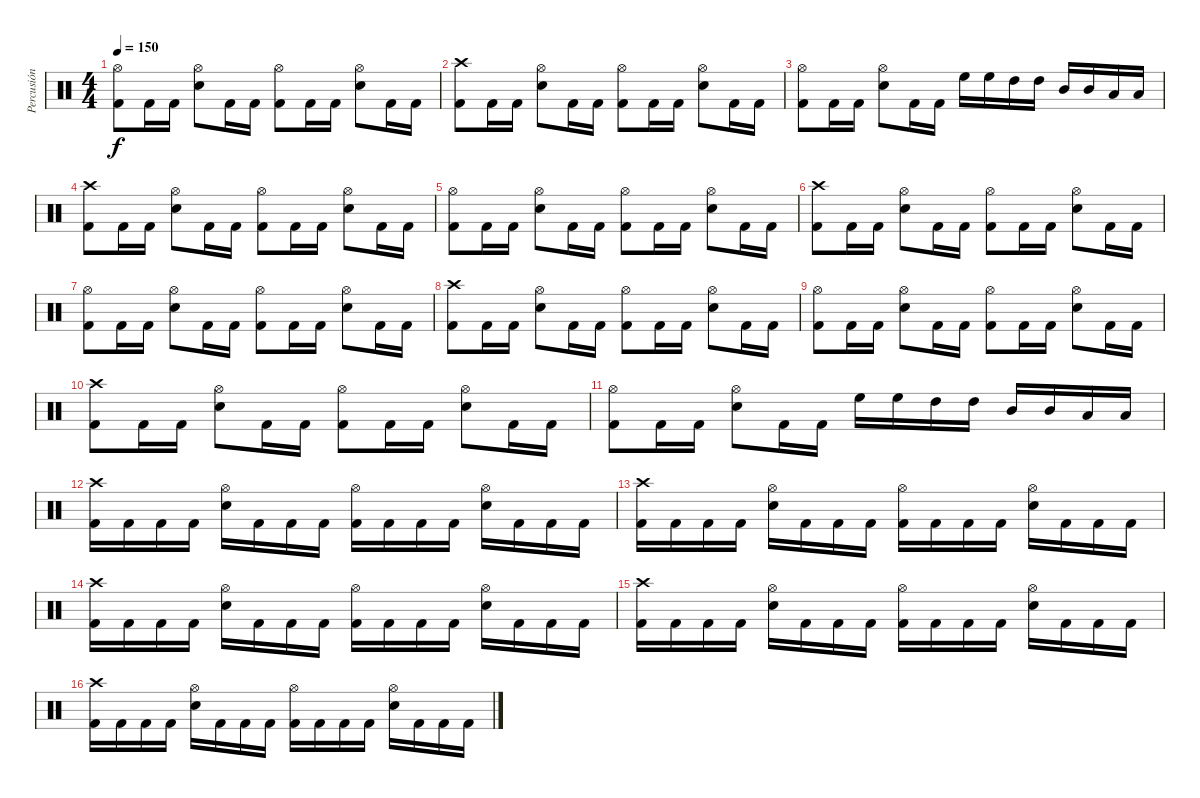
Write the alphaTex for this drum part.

\track ("Percusión" "Percusión") {instrument percussion}
\staff {score}
\articulation defaults
\ts (4 4)
\tempo 150
\clef neutral
\ks c
("Hi-Hat (open)" "Kick (hit) 2").8{dy f} "Kick (hit) 2".16 "Kick (hit) 2".16 ("Hi-Hat (open)" "Electric Snare (hit)").8 "Kick (hit) 2".16 "Kick (hit) 2".16 ("Hi-Hat (open)" "Kick (hit) 2").8 "Kick (hit) 2".16 "Kick (hit) 2".16 ("Hi-Hat (open)" "Electric Snare (hit)").8 "Kick (hit) 2".16 "Kick (hit) 2".16 |
("Crash high (hit)" "Kick (hit) 2").8 "Kick (hit) 2".16 "Kick (hit) 2".16 ("Hi-Hat (open)" "Electric Snare (hit)").8 "Kick (hit) 2".16 "Kick (hit) 2".16 ("Hi-Hat (open)" "Kick (hit) 2").8 "Kick (hit) 2".16 "Kick (hit) 2".16 ("Hi-Hat (open)" "Electric Snare (hit)").8 "Kick (hit) 2".16 "Kick (hit) 2".16 |
("Hi-Hat (open)" "Kick (hit) 2").8 "Kick (hit) 2".16 "Kick (hit) 2".16 ("Hi-Hat (open)" "Electric Snare (hit)").8 "Kick (hit) 2".16 "Kick (hit) 2".16 "High Floor Tom (hit)".16 "High Floor Tom (hit)".16 "High Tom (hit)".16 "High Tom (hit)".16 "Mid Tom (hit)".16 "Mid Tom (hit)".16 "Low Tom (hit)".16 "Low Tom (hit)".16 |
("Crash high (hit)" "Kick (hit) 2").8 "Kick (hit) 2".16 "Kick (hit) 2".16 ("Hi-Hat (open)" "Electric Snare (hit)").8 "Kick (hit) 2".16 "Kick (hit) 2".16 ("Hi-Hat (open)" "Kick (hit) 2").8 "Kick (hit) 2".16 "Kick (hit) 2".16 ("Hi-Hat (open)" "Electric Snare (hit)").8 "Kick (hit) 2".16 "Kick (hit) 2".16 |
("Hi-Hat (open)" "Kick (hit) 2").8 "Kick (hit) 2".16 "Kick (hit) 2".16 ("Hi-Hat (open)" "Electric Snare (hit)").8 "Kick (hit) 2".16 "Kick (hit) 2".16 ("Hi-Hat (open)" "Kick (hit) 2").8 "Kick (hit) 2".16 "Kick (hit) 2".16 ("Hi-Hat (open)" "Electric Snare (hit)").8 "Kick (hit) 2".16 "Kick (hit) 2".16 |
("Crash high (hit)" "Kick (hit) 2").8 "Kick (hit) 2".16 "Kick (hit) 2".16 ("Hi-Hat (open)" "Electric Snare (hit)").8 "Kick (hit) 2".16 "Kick (hit) 2".16 ("Hi-Hat (open)" "Kick (hit) 2").8 "Kick (hit) 2".16 "Kick (hit) 2".16 ("Hi-Hat (open)" "Electric Snare (hit)").8 "Kick (hit) 2".16 "Kick (hit) 2".16 |
("Hi-Hat (open)" "Kick (hit) 2").8 "Kick (hit) 2".16 "Kick (hit) 2".16 ("Hi-Hat (open)" "Electric Snare (hit)").8 "Kick (hit) 2".16 "Kick (hit) 2".16 ("Hi-Hat (open)" "Kick (hit) 2").8 "Kick (hit) 2".16 "Kick (hit) 2".16 ("Hi-Hat (open)" "Electric Snare (hit)").8 "Kick (hit) 2".16 "Kick (hit) 2".16 |
("Crash high (hit)" "Kick (hit) 2").8 "Kick (hit) 2".16 "Kick (hit) 2".16 ("Hi-Hat (open)" "Electric Snare (hit)").8 "Kick (hit) 2".16 "Kick (hit) 2".16 ("Hi-Hat (open)" "Kick (hit) 2").8 "Kick (hit) 2".16 "Kick (hit) 2".16 ("Hi-Hat (open)" "Electric Snare (hit)").8 "Kick (hit) 2".16 "Kick (hit) 2".16 |
("Hi-Hat (open)" "Kick (hit) 2").8 "Kick (hit) 2".16 "Kick (hit) 2".16 ("Hi-Hat (open)" "Electric Snare (hit)").8 "Kick (hit) 2".16 "Kick (hit) 2".16 ("Hi-Hat (open)" "Kick (hit) 2").8 "Kick (hit) 2".16 "Kick (hit) 2".16 ("Hi-Hat (open)" "Electric Snare (hit)").8 "Kick (hit) 2".16 "Kick (hit) 2".16 |
("Crash high (hit)" "Kick (hit) 2").8 "Kick (hit) 2".16 "Kick (hit) 2".16 ("Hi-Hat (open)" "Electric Snare (hit)").8 "Kick (hit) 2".16 "Kick (hit) 2".16 ("Hi-Hat (open)" "Kick (hit) 2").8 "Kick (hit) 2".16 "Kick (hit) 2".16 ("Hi-Hat (open)" "Electric Snare (hit)").8 "Kick (hit) 2".16 "Kick (hit) 2".16 |
("Hi-Hat (open)" "Kick (hit) 2").8 "Kick (hit) 2".16 "Kick (hit) 2".16 ("Hi-Hat (open)" "Electric Snare (hit)").8 "Kick (hit) 2".16 "Kick (hit) 2".16 "High Floor Tom (hit)".16 "High Floor Tom (hit)".16 "High Tom (hit)".16 "High Tom (hit)".16 "Mid Tom (hit)".16 "Mid Tom (hit)".16 "Low Tom (hit)".16 "Low Tom (hit)".16 |
("Crash high (hit)" "Kick (hit) 2").16 "Kick (hit) 2".16 "Kick (hit) 2".16 "Kick (hit) 2".16 ("Hi-Hat (open)" "Electric Snare (hit)").16 "Kick (hit) 2".16 "Kick (hit) 2".16 "Kick (hit) 2".16 ("Hi-Hat (open)" "Kick (hit) 2").16 "Kick (hit) 2".16 "Kick (hit) 2".16 "Kick (hit) 2".16 ("Hi-Hat (open)" "Electric Snare (hit)").16 "Kick (hit) 2".16 "Kick (hit) 2".16 "Kick (hit) 2".16 |
("Crash high (hit)" "Kick (hit) 2").16 "Kick (hit) 2".16 "Kick (hit) 2".16 "Kick (hit) 2".16 ("Hi-Hat (open)" "Electric Snare (hit)").16 "Kick (hit) 2".16 "Kick (hit) 2".16 "Kick (hit) 2".16 ("Hi-Hat (open)" "Kick (hit) 2").16 "Kick (hit) 2".16 "Kick (hit) 2".16 "Kick (hit) 2".16 ("Hi-Hat (open)" "Electric Snare (hit)").16 "Kick (hit) 2".16 "Kick (hit) 2".16 "Kick (hit) 2".16 |
("Crash high (hit)" "Kick (hit) 2").16 "Kick (hit) 2".16 "Kick (hit) 2".16 "Kick (hit) 2".16 ("Hi-Hat (open)" "Electric Snare (hit)").16 "Kick (hit) 2".16 "Kick (hit) 2".16 "Kick (hit) 2".16 ("Hi-Hat (open)" "Kick (hit) 2").16 "Kick (hit) 2".16 "Kick (hit) 2".16 "Kick (hit) 2".16 ("Hi-Hat (open)" "Electric Snare (hit)").16 "Kick (hit) 2".16 "Kick (hit) 2".16 "Kick (hit) 2".16 |
("Crash high (hit)" "Kick (hit) 2").16 "Kick (hit) 2".16 "Kick (hit) 2".16 "Kick (hit) 2".16 ("Hi-Hat (open)" "Electric Snare (hit)").16 "Kick (hit) 2".16 "Kick (hit) 2".16 "Kick (hit) 2".16 ("Hi-Hat (open)" "Kick (hit) 2").16 "Kick (hit) 2".16 "Kick (hit) 2".16 "Kick (hit) 2".16 ("Hi-Hat (open)" "Electric Snare (hit)").16 "Kick (hit) 2".16 "Kick (hit) 2".16 "Kick (hit) 2".16 |
("Crash high (hit)" "Kick (hit) 2").16 "Kick (hit) 2".16 "Kick (hit) 2".16 "Kick (hit) 2".16 ("Hi-Hat (open)" "Electric Snare (hit)").16 "Kick (hit) 2".16 "Kick (hit) 2".16 "Kick (hit) 2".16 ("Hi-Hat (open)" "Kick (hit) 2").16 "Kick (hit) 2".16 "Kick (hit) 2".16 "Kick (hit) 2".16 ("Hi-Hat (open)" "Electric Snare (hit)").16 "Kick (hit) 2".16 "Kick (hit) 2".16 "Kick (hit) 2".16
